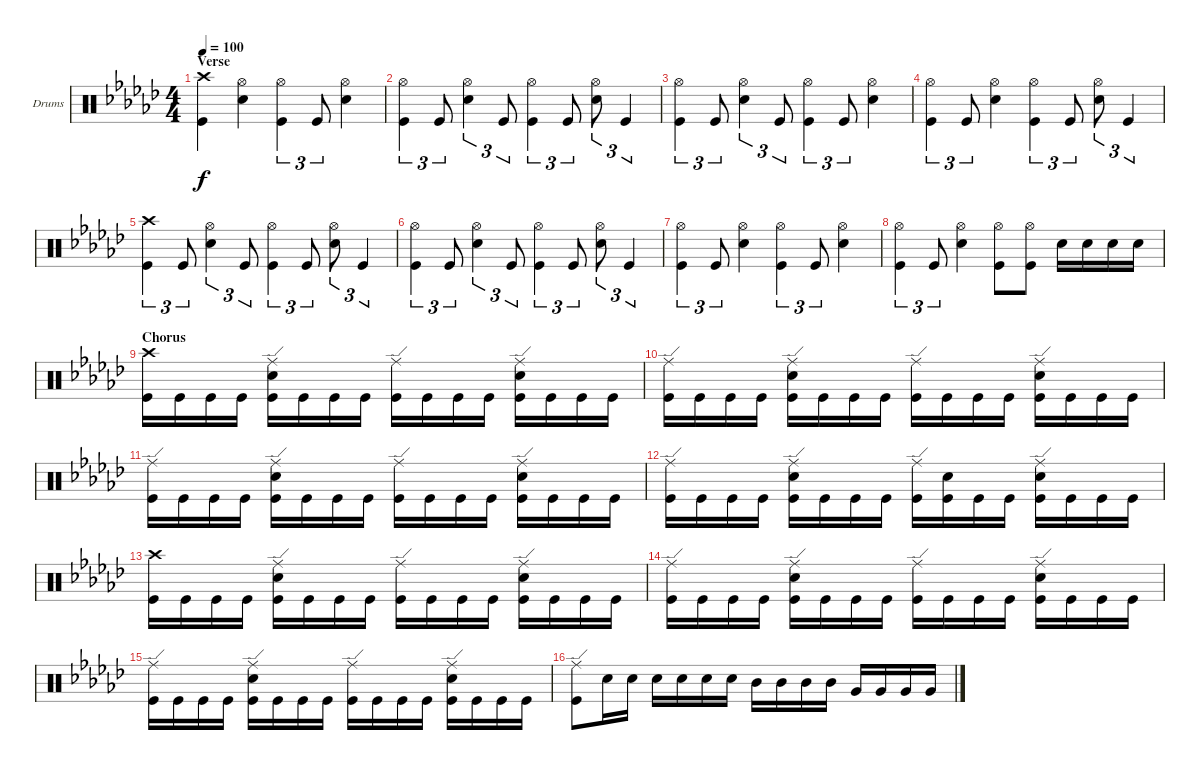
\defaultSystemsLayout 4
\bracketExtendMode groupsimilarinstruments
\firstSystemTrackNameOrientation horizontal
\otherSystemsTrackNameOrientation horizontal
\track ("Drumkit" "Drums") {instrument percussion}
\staff {score}
\articulation defaults
\ts (4 4)
\section ("" "Verse")
\tempo 100
\clef neutral
\scale
0.333333
\ks ebminor
("Crash high (hit)" "Kick (hit)").4{dy f} ("Snare (hit) 2" "Hi-Hat (open)").4 ("Kick (hit)" "Hi-Hat (open)").4{tu (3 2)} "Kick (hit)".8{tu (3 2)} ("Snare (hit) 2" "Hi-Hat (open)").4 |
\scale
0.333333 ("Kick (hit)" "Hi-Hat (open)").4{tu (3 2)} "Kick (hit)".8{tu (3 2)} ("Snare (hit) 2" "Hi-Hat (open)").4{tu (3 2)} "Kick (hit)".8{tu (3 2)} ("Kick (hit)" "Hi-Hat (open)").4{tu (3 2)} "Kick (hit)".8{tu (3 2)} ("Snare (hit) 2" "Hi-Hat (open)").8{tu (3 2)} "Kick (hit)".4{tu (3 2)} |
\scale
0.333333 ("Kick (hit)" "Hi-Hat (open)").4{tu (3 2)} "Kick (hit)".8{tu (3 2)} ("Snare (hit) 2" "Hi-Hat (open)").4{tu (3 2)} "Kick (hit)".8{tu (3 2)} ("Kick (hit)" "Hi-Hat (open)").4{tu (3 2)} "Kick (hit)".8{tu (3 2)} ("Snare (hit) 2" "Hi-Hat (open)").4 |
\scale
0.333333 ("Kick (hit)" "Hi-Hat (open)").4{tu (3 2)} "Kick (hit)".8{tu (3 2)} ("Snare (hit) 2" "Hi-Hat (open)").4 ("Kick (hit)" "Hi-Hat (open)").4{tu (3 2)} "Kick (hit)".8{tu (3 2)} ("Snare (hit) 2" "Hi-Hat (open)").8{tu (3 2)} "Kick (hit)".4{tu (3 2)} |
\scale
0.333333 ("Kick (hit)" "Crash high (hit)").4{tu (3 2)} "Kick (hit)".8{tu (3 2)} ("Snare (hit) 2" "Hi-Hat (open)").4{tu (3 2)} "Kick (hit)".8{tu (3 2)} ("Kick (hit)" "Hi-Hat (open)").4{tu (3 2)} "Kick (hit)".8{tu (3 2)} ("Snare (hit) 2" "Hi-Hat (open)").8{tu (3 2)} "Kick (hit)".4{tu (3 2)} |
\scale
0.333333 ("Kick (hit)" "Hi-Hat (open)").4{tu (3 2)} "Kick (hit)".8{tu (3 2)} ("Snare (hit) 2" "Hi-Hat (open)").4{tu (3 2)} "Kick (hit)".8{tu (3 2)} ("Kick (hit)" "Hi-Hat (open)").4{tu (3 2)} "Kick (hit)".8{tu (3 2)} ("Snare (hit) 2" "Hi-Hat (open)").8{tu (3 2)} "Kick (hit)".4{tu (3 2)} |
\scale
0.333333 ("Kick (hit)" "Hi-Hat (open)").4{tu (3 2)} "Kick (hit)".8{tu (3 2)} ("Snare (hit) 2" "Hi-Hat (open)").4 ("Kick (hit)" "Hi-Hat (open)").4{tu (3 2)} "Kick (hit)".8{tu (3 2)} ("Snare (hit) 2" "Hi-Hat (open)").4 |
\scale
0.333333 ("Kick (hit)" "Hi-Hat (open)").4{tu (3 2)} "Kick (hit)".8{tu (3 2)} ("Snare (hit) 2" "Hi-Hat (open)").4 ("Kick (hit)" "Hi-Hat (open)").8 ("Kick (hit)" "Hi-Hat (open)").8 "Snare (hit) 2".16 "Snare (hit) 2".16 "Snare (hit) 2".16 "Snare (hit) 2".16 |
\section ("" "Chorus")
\scale
0.333333 ("Kick (hit)" "Crash high (hit)").16 "Kick (hit)".16 "Kick (hit)".16 "Kick (hit)".16 ("Kick (hit)" "Snare (hit) 2" "Ride (edge)").16 "Kick (hit)".16 "Kick (hit)".16 "Kick (hit)".16 ("Kick (hit)" "Ride (edge)").16 "Kick (hit)".16 "Kick (hit)".16 "Kick (hit)".16 ("Kick (hit)" "Snare (hit) 2" "Ride (edge)").16 "Kick (hit)".16 "Kick (hit)".16 "Kick (hit)".16 |
\scale
0.333333 ("Kick (hit)" "Ride (edge)").16 "Kick (hit)".16 "Kick (hit)".16 "Kick (hit)".16 ("Kick (hit)" "Snare (hit) 2" "Ride (edge)").16 "Kick (hit)".16 "Kick (hit)".16 "Kick (hit)".16 ("Kick (hit)" "Ride (edge)").16 "Kick (hit)".16 "Kick (hit)".16 "Kick (hit)".16 ("Kick (hit)" "Snare (hit) 2" "Ride (edge)").16 "Kick (hit)".16 "Kick (hit)".16 "Kick (hit)".16 |
\scale
0.333333 ("Kick (hit)" "Ride (edge)").16 "Kick (hit)".16 "Kick (hit)".16 "Kick (hit)".16 ("Kick (hit)" "Snare (hit) 2" "Ride (edge)").16 "Kick (hit)".16 "Kick (hit)".16 "Kick (hit)".16 ("Kick (hit)" "Ride (edge)").16 "Kick (hit)".16 "Kick (hit)".16 "Kick (hit)".16 ("Kick (hit)" "Snare (hit) 2" "Ride (edge)").16 "Kick (hit)".16 "Kick (hit)".16 "Kick (hit)".16 |
\scale
0.333333 ("Kick (hit)" "Ride (edge)").16 "Kick (hit)".16 "Kick (hit)".16 "Kick (hit)".16 ("Kick (hit)" "Snare (hit) 2" "Ride (edge)").16 "Kick (hit)".16 "Kick (hit)".16 "Kick (hit)".16 ("Kick (hit)" "Ride (edge)").16 ("Kick (hit)" "Snare (hit) 2").16 "Kick (hit)".16 "Kick (hit)".16 ("Kick (hit)" "Snare (hit) 2" "Ride (edge)").16 "Kick (hit)".16 "Kick (hit)".16 "Kick (hit)".16 |
\scale
0.333333 ("Kick (hit)" "Crash high (hit)").16 "Kick (hit)".16 "Kick (hit)".16 "Kick (hit)".16 ("Kick (hit)" "Snare (hit) 2" "Ride (edge)").16 "Kick (hit)".16 "Kick (hit)".16 "Kick (hit)".16 ("Kick (hit)" "Ride (edge)").16 "Kick (hit)".16 "Kick (hit)".16 "Kick (hit)".16 ("Kick (hit)" "Snare (hit) 2" "Ride (edge)").16 "Kick (hit)".16 "Kick (hit)".16 "Kick (hit)".16 |
\scale
0.333333 ("Kick (hit)" "Ride (edge)").16 "Kick (hit)".16 "Kick (hit)".16 "Kick (hit)".16 ("Kick (hit)" "Snare (hit) 2" "Ride (edge)").16 "Kick (hit)".16 "Kick (hit)".16 "Kick (hit)".16 ("Kick (hit)" "Ride (edge)").16 "Kick (hit)".16 "Kick (hit)".16 "Kick (hit)".16 ("Kick (hit)" "Snare (hit) 2" "Ride (edge)").16 "Kick (hit)".16 "Kick (hit)".16 "Kick (hit)".16 |
\scale
0.333333 ("Kick (hit)" "Ride (edge)").16 "Kick (hit)".16 "Kick (hit)".16 "Kick (hit)".16 ("Kick (hit)" "Snare (hit) 2" "Ride (edge)").16 "Kick (hit)".16 "Kick (hit)".16 "Kick (hit)".16 ("Kick (hit)" "Ride (edge)").16 "Kick (hit)".16 "Kick (hit)".16 "Kick (hit)".16 ("Kick (hit)" "Snare (hit) 2" "Ride (edge)").16 "Kick (hit)".16 "Kick (hit)".16 "Kick (hit)".16 |
\scale
0.333333 ("Kick (hit)" "Ride (edge)").8 "Snare (hit) 2".16 "Snare (hit) 2".16 "Snare (hit) 2".16 "Snare (hit) 2".16 "Snare (hit) 2".16 "Snare (hit) 2".16 "Mid Tom (hit)".16 "Mid Tom (hit)".16 "Mid Tom (hit)".16 "Mid Tom (hit)".16 "Very Low Tom (hit)".16 "Very Low Tom (hit)".16 "Very Low Tom (hit)".16 "Very Low Tom (hit)".16
